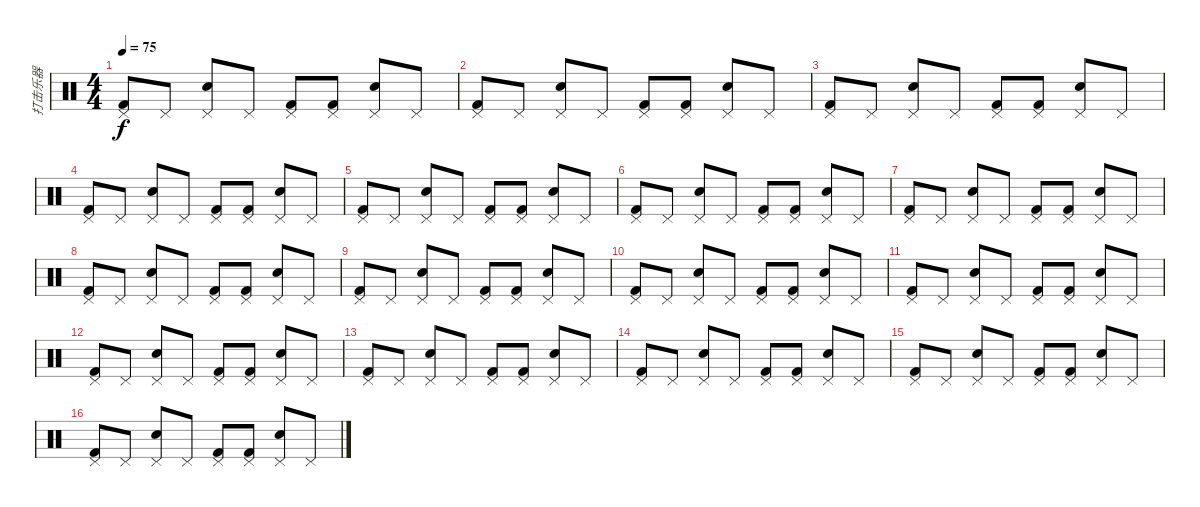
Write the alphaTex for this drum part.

\track ("打击乐器" "打击乐器") {instrument percussion}
\staff {score}
\articulation defaults
\ts (4 4)
\tempo 75
\clef neutral
\ks c
("Kick (hit) 2" "Pedal Hi-Hat (hit)").8{dy f} "Pedal Hi-Hat (hit)".8 ("Electric Snare (hit)" "Pedal Hi-Hat (hit)").8 "Pedal Hi-Hat (hit)".8 ("Kick (hit) 2" "Pedal Hi-Hat (hit)").8 ("Kick (hit) 2" "Pedal Hi-Hat (hit)").8 ("Electric Snare (hit)" "Pedal Hi-Hat (hit)").8 "Pedal Hi-Hat (hit)".8 |
("Kick (hit) 2" "Pedal Hi-Hat (hit)").8 "Pedal Hi-Hat (hit)".8 ("Electric Snare (hit)" "Pedal Hi-Hat (hit)").8 "Pedal Hi-Hat (hit)".8 ("Kick (hit) 2" "Pedal Hi-Hat (hit)").8 ("Kick (hit) 2" "Pedal Hi-Hat (hit)").8 ("Electric Snare (hit)" "Pedal Hi-Hat (hit)").8 "Pedal Hi-Hat (hit)".8 |
("Kick (hit) 2" "Pedal Hi-Hat (hit)").8 "Pedal Hi-Hat (hit)".8 ("Electric Snare (hit)" "Pedal Hi-Hat (hit)").8 "Pedal Hi-Hat (hit)".8 ("Kick (hit) 2" "Pedal Hi-Hat (hit)").8 ("Kick (hit) 2" "Pedal Hi-Hat (hit)").8 ("Electric Snare (hit)" "Pedal Hi-Hat (hit)").8 "Pedal Hi-Hat (hit)".8 |
("Kick (hit) 2" "Pedal Hi-Hat (hit)").8 "Pedal Hi-Hat (hit)".8 ("Electric Snare (hit)" "Pedal Hi-Hat (hit)").8 "Pedal Hi-Hat (hit)".8 ("Kick (hit) 2" "Pedal Hi-Hat (hit)").8 ("Kick (hit) 2" "Pedal Hi-Hat (hit)").8 ("Electric Snare (hit)" "Pedal Hi-Hat (hit)").8 "Pedal Hi-Hat (hit)".8 |
("Kick (hit) 2" "Pedal Hi-Hat (hit)").8 "Pedal Hi-Hat (hit)".8 ("Electric Snare (hit)" "Pedal Hi-Hat (hit)").8 "Pedal Hi-Hat (hit)".8 ("Kick (hit) 2" "Pedal Hi-Hat (hit)").8 ("Kick (hit) 2" "Pedal Hi-Hat (hit)").8 ("Electric Snare (hit)" "Pedal Hi-Hat (hit)").8 "Pedal Hi-Hat (hit)".8 |
("Kick (hit) 2" "Pedal Hi-Hat (hit)").8 "Pedal Hi-Hat (hit)".8 ("Electric Snare (hit)" "Pedal Hi-Hat (hit)").8 "Pedal Hi-Hat (hit)".8 ("Kick (hit) 2" "Pedal Hi-Hat (hit)").8 ("Kick (hit) 2" "Pedal Hi-Hat (hit)").8 ("Electric Snare (hit)" "Pedal Hi-Hat (hit)").8 "Pedal Hi-Hat (hit)".8 |
("Kick (hit) 2" "Pedal Hi-Hat (hit)").8 "Pedal Hi-Hat (hit)".8 ("Electric Snare (hit)" "Pedal Hi-Hat (hit)").8 "Pedal Hi-Hat (hit)".8 ("Kick (hit) 2" "Pedal Hi-Hat (hit)").8 ("Kick (hit) 2" "Pedal Hi-Hat (hit)").8 ("Electric Snare (hit)" "Pedal Hi-Hat (hit)").8 "Pedal Hi-Hat (hit)".8 |
("Kick (hit) 2" "Pedal Hi-Hat (hit)").8 "Pedal Hi-Hat (hit)".8 ("Electric Snare (hit)" "Pedal Hi-Hat (hit)").8 "Pedal Hi-Hat (hit)".8 ("Kick (hit) 2" "Pedal Hi-Hat (hit)").8 ("Kick (hit) 2" "Pedal Hi-Hat (hit)").8 ("Electric Snare (hit)" "Pedal Hi-Hat (hit)").8 "Pedal Hi-Hat (hit)".8 |
("Kick (hit) 2" "Pedal Hi-Hat (hit)").8 "Pedal Hi-Hat (hit)".8 ("Electric Snare (hit)" "Pedal Hi-Hat (hit)").8 "Pedal Hi-Hat (hit)".8 ("Kick (hit) 2" "Pedal Hi-Hat (hit)").8 ("Kick (hit) 2" "Pedal Hi-Hat (hit)").8 ("Electric Snare (hit)" "Pedal Hi-Hat (hit)").8 "Pedal Hi-Hat (hit)".8 |
("Kick (hit) 2" "Pedal Hi-Hat (hit)").8 "Pedal Hi-Hat (hit)".8 ("Electric Snare (hit)" "Pedal Hi-Hat (hit)").8 "Pedal Hi-Hat (hit)".8 ("Kick (hit) 2" "Pedal Hi-Hat (hit)").8 ("Kick (hit) 2" "Pedal Hi-Hat (hit)").8 ("Electric Snare (hit)" "Pedal Hi-Hat (hit)").8 "Pedal Hi-Hat (hit)".8 |
("Kick (hit) 2" "Pedal Hi-Hat (hit)").8 "Pedal Hi-Hat (hit)".8 ("Electric Snare (hit)" "Pedal Hi-Hat (hit)").8 "Pedal Hi-Hat (hit)".8 ("Kick (hit) 2" "Pedal Hi-Hat (hit)").8 ("Kick (hit) 2" "Pedal Hi-Hat (hit)").8 ("Electric Snare (hit)" "Pedal Hi-Hat (hit)").8 "Pedal Hi-Hat (hit)".8 |
("Kick (hit) 2" "Pedal Hi-Hat (hit)").8 "Pedal Hi-Hat (hit)".8 ("Electric Snare (hit)" "Pedal Hi-Hat (hit)").8 "Pedal Hi-Hat (hit)".8 ("Kick (hit) 2" "Pedal Hi-Hat (hit)").8 ("Kick (hit) 2" "Pedal Hi-Hat (hit)").8 ("Electric Snare (hit)" "Pedal Hi-Hat (hit)").8 "Pedal Hi-Hat (hit)".8 |
("Kick (hit) 2" "Pedal Hi-Hat (hit)").8 "Pedal Hi-Hat (hit)".8 ("Electric Snare (hit)" "Pedal Hi-Hat (hit)").8 "Pedal Hi-Hat (hit)".8 ("Kick (hit) 2" "Pedal Hi-Hat (hit)").8 ("Kick (hit) 2" "Pedal Hi-Hat (hit)").8 ("Electric Snare (hit)" "Pedal Hi-Hat (hit)").8 "Pedal Hi-Hat (hit)".8 |
("Kick (hit) 2" "Pedal Hi-Hat (hit)").8 "Pedal Hi-Hat (hit)".8 ("Electric Snare (hit)" "Pedal Hi-Hat (hit)").8 "Pedal Hi-Hat (hit)".8 ("Kick (hit) 2" "Pedal Hi-Hat (hit)").8 ("Kick (hit) 2" "Pedal Hi-Hat (hit)").8 ("Electric Snare (hit)" "Pedal Hi-Hat (hit)").8 "Pedal Hi-Hat (hit)".8 |
("Kick (hit) 2" "Pedal Hi-Hat (hit)").8 "Pedal Hi-Hat (hit)".8 ("Electric Snare (hit)" "Pedal Hi-Hat (hit)").8 "Pedal Hi-Hat (hit)".8 ("Kick (hit) 2" "Pedal Hi-Hat (hit)").8 ("Kick (hit) 2" "Pedal Hi-Hat (hit)").8 ("Electric Snare (hit)" "Pedal Hi-Hat (hit)").8 "Pedal Hi-Hat (hit)".8 |
("Kick (hit) 2" "Pedal Hi-Hat (hit)").8 "Pedal Hi-Hat (hit)".8 ("Electric Snare (hit)" "Pedal Hi-Hat (hit)").8 "Pedal Hi-Hat (hit)".8 ("Kick (hit) 2" "Pedal Hi-Hat (hit)").8 ("Kick (hit) 2" "Pedal Hi-Hat (hit)").8 ("Electric Snare (hit)" "Pedal Hi-Hat (hit)").8 "Pedal Hi-Hat (hit)".8
